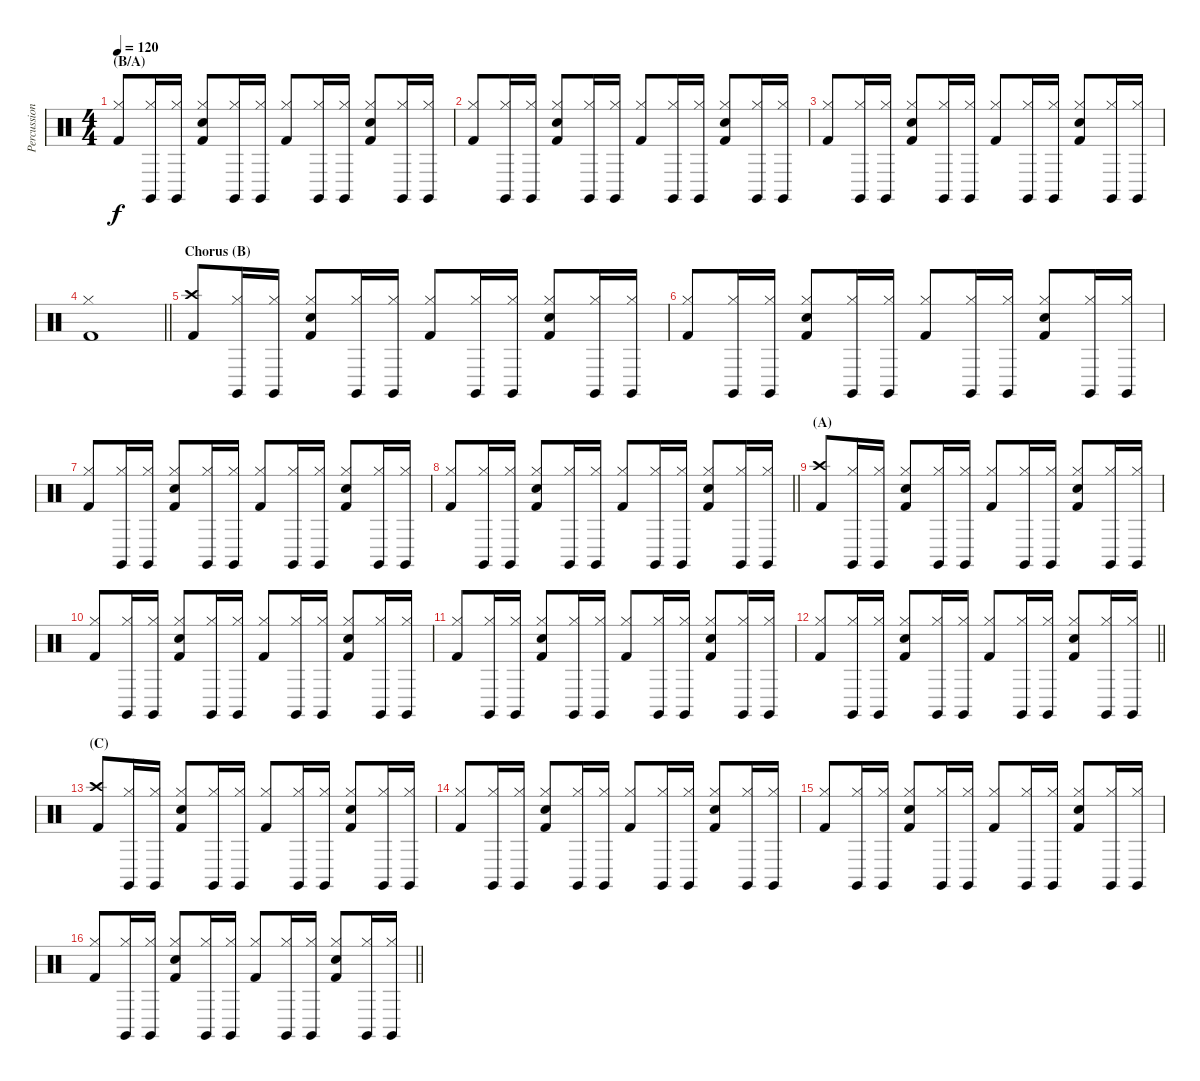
\track ("Percussion" "Percussion") {instrument percussion}
\staff {score}
\articulation defaults
\ts (4 4)
\section ("" "(B/A)")
\tempo 120
\clef neutral
\ks c
("Hi-Hat (closed)" "Kick (hit) 2").8{dy f} ("Hi-Hat (closed)" "Claves (hit)").16 ("Hi-Hat (closed)" "Claves (hit)").16 ("Hi-Hat (closed)" "Electric Snare (hit)" "Kick (hit) 2").8 ("Hi-Hat (closed)" "Claves (hit)").16 ("Hi-Hat (closed)" "Claves (hit)").16 ("Hi-Hat (closed)" "Kick (hit) 2").8 ("Hi-Hat (closed)" "Claves (hit)").16 ("Hi-Hat (closed)" "Claves (hit)").16 ("Hi-Hat (closed)" "Electric Snare (hit)" "Kick (hit) 2").8 ("Hi-Hat (closed)" "Claves (hit)").16 ("Hi-Hat (closed)" "Claves (hit)").16 |
("Hi-Hat (closed)" "Kick (hit) 2").8 ("Hi-Hat (closed)" "Claves (hit)").16 ("Hi-Hat (closed)" "Claves (hit)").16 ("Hi-Hat (closed)" "Electric Snare (hit)" "Kick (hit) 2").8 ("Hi-Hat (closed)" "Claves (hit)").16 ("Hi-Hat (closed)" "Claves (hit)").16 ("Hi-Hat (closed)" "Kick (hit) 2").8 ("Hi-Hat (closed)" "Claves (hit)").16 ("Hi-Hat (closed)" "Claves (hit)").16 ("Hi-Hat (closed)" "Electric Snare (hit)" "Kick (hit) 2").8 ("Hi-Hat (closed)" "Claves (hit)").16 ("Hi-Hat (closed)" "Claves (hit)").16 |
("Hi-Hat (closed)" "Kick (hit) 2").8 ("Hi-Hat (closed)" "Claves (hit)").16 ("Hi-Hat (closed)" "Claves (hit)").16 ("Hi-Hat (closed)" "Electric Snare (hit)" "Kick (hit) 2").8 ("Hi-Hat (closed)" "Claves (hit)").16 ("Hi-Hat (closed)" "Claves (hit)").16 ("Hi-Hat (closed)" "Kick (hit) 2").8 ("Hi-Hat (closed)" "Claves (hit)").16 ("Hi-Hat (closed)" "Claves (hit)").16 ("Hi-Hat (closed)" "Electric Snare (hit)" "Kick (hit) 2").8 ("Hi-Hat (closed)" "Claves (hit)").16 ("Hi-Hat (closed)" "Claves (hit)").16 |
\barLineRight lightlight
("Hi-Hat (closed)" "Kick (hit) 2").1 |
\section ("" "Chorus (B)")
("Crash high (hit)" "Kick (hit) 2").8 ("Hi-Hat (closed)" "Claves (hit)").16 ("Hi-Hat (closed)" "Claves (hit)").16 ("Hi-Hat (closed)" "Electric Snare (hit)" "Kick (hit) 2").8 ("Hi-Hat (closed)" "Claves (hit)").16 ("Hi-Hat (closed)" "Claves (hit)").16 ("Hi-Hat (closed)" "Kick (hit) 2").8 ("Hi-Hat (closed)" "Claves (hit)").16 ("Hi-Hat (closed)" "Claves (hit)").16 ("Hi-Hat (closed)" "Electric Snare (hit)" "Kick (hit) 2").8 ("Hi-Hat (closed)" "Claves (hit)").16 ("Hi-Hat (closed)" "Claves (hit)").16 |
("Hi-Hat (closed)" "Kick (hit) 2").8 ("Hi-Hat (closed)" "Claves (hit)").16 ("Hi-Hat (closed)" "Claves (hit)").16 ("Hi-Hat (closed)" "Electric Snare (hit)" "Kick (hit) 2").8 ("Hi-Hat (closed)" "Claves (hit)").16 ("Hi-Hat (closed)" "Claves (hit)").16 ("Hi-Hat (closed)" "Kick (hit) 2").8 ("Hi-Hat (closed)" "Claves (hit)").16 ("Hi-Hat (closed)" "Claves (hit)").16 ("Hi-Hat (closed)" "Electric Snare (hit)" "Kick (hit) 2").8 ("Hi-Hat (closed)" "Claves (hit)").16 ("Hi-Hat (closed)" "Claves (hit)").16 |
("Hi-Hat (closed)" "Kick (hit) 2").8 ("Hi-Hat (closed)" "Claves (hit)").16 ("Hi-Hat (closed)" "Claves (hit)").16 ("Hi-Hat (closed)" "Electric Snare (hit)" "Kick (hit) 2").8 ("Hi-Hat (closed)" "Claves (hit)").16 ("Hi-Hat (closed)" "Claves (hit)").16 ("Hi-Hat (closed)" "Kick (hit) 2").8 ("Hi-Hat (closed)" "Claves (hit)").16 ("Hi-Hat (closed)" "Claves (hit)").16 ("Hi-Hat (closed)" "Electric Snare (hit)" "Kick (hit) 2").8 ("Hi-Hat (closed)" "Claves (hit)").16 ("Hi-Hat (closed)" "Claves (hit)").16 |
\barLineRight lightlight
("Hi-Hat (closed)" "Kick (hit) 2").8 ("Hi-Hat (closed)" "Claves (hit)").16 ("Hi-Hat (closed)" "Claves (hit)").16 ("Hi-Hat (closed)" "Electric Snare (hit)" "Kick (hit) 2").8 ("Hi-Hat (closed)" "Claves (hit)").16 ("Hi-Hat (closed)" "Claves (hit)").16 ("Hi-Hat (closed)" "Kick (hit) 2").8 ("Hi-Hat (closed)" "Claves (hit)").16 ("Hi-Hat (closed)" "Claves (hit)").16 ("Hi-Hat (closed)" "Electric Snare (hit)" "Kick (hit) 2").8 ("Hi-Hat (closed)" "Claves (hit)").16 ("Hi-Hat (closed)" "Claves (hit)").16 |
\section ("" "(A)")
("Crash high (hit)" "Kick (hit) 2").8 ("Hi-Hat (closed)" "Claves (hit)").16 ("Hi-Hat (closed)" "Claves (hit)").16 ("Hi-Hat (closed)" "Electric Snare (hit)" "Kick (hit) 2").8 ("Hi-Hat (closed)" "Claves (hit)").16 ("Hi-Hat (closed)" "Claves (hit)").16 ("Hi-Hat (closed)" "Kick (hit) 2").8 ("Hi-Hat (closed)" "Claves (hit)").16 ("Hi-Hat (closed)" "Claves (hit)").16 ("Hi-Hat (closed)" "Electric Snare (hit)" "Kick (hit) 2").8 ("Hi-Hat (closed)" "Claves (hit)").16 ("Hi-Hat (closed)" "Claves (hit)").16 |
("Hi-Hat (closed)" "Kick (hit) 2").8 ("Hi-Hat (closed)" "Claves (hit)").16 ("Hi-Hat (closed)" "Claves (hit)").16 ("Hi-Hat (closed)" "Electric Snare (hit)" "Kick (hit) 2").8 ("Hi-Hat (closed)" "Claves (hit)").16 ("Hi-Hat (closed)" "Claves (hit)").16 ("Hi-Hat (closed)" "Kick (hit) 2").8 ("Hi-Hat (closed)" "Claves (hit)").16 ("Hi-Hat (closed)" "Claves (hit)").16 ("Hi-Hat (closed)" "Electric Snare (hit)" "Kick (hit) 2").8 ("Hi-Hat (closed)" "Claves (hit)").16 ("Hi-Hat (closed)" "Claves (hit)").16 |
("Hi-Hat (closed)" "Kick (hit) 2").8 ("Hi-Hat (closed)" "Claves (hit)").16 ("Hi-Hat (closed)" "Claves (hit)").16 ("Hi-Hat (closed)" "Electric Snare (hit)" "Kick (hit) 2").8 ("Hi-Hat (closed)" "Claves (hit)").16 ("Hi-Hat (closed)" "Claves (hit)").16 ("Hi-Hat (closed)" "Kick (hit) 2").8 ("Hi-Hat (closed)" "Claves (hit)").16 ("Hi-Hat (closed)" "Claves (hit)").16 ("Hi-Hat (closed)" "Electric Snare (hit)" "Kick (hit) 2").8 ("Hi-Hat (closed)" "Claves (hit)").16 ("Hi-Hat (closed)" "Claves (hit)").16 |
\barLineRight lightlight
("Hi-Hat (closed)" "Kick (hit) 2").8 ("Hi-Hat (closed)" "Claves (hit)").16 ("Hi-Hat (closed)" "Claves (hit)").16 ("Hi-Hat (closed)" "Electric Snare (hit)" "Kick (hit) 2").8 ("Hi-Hat (closed)" "Claves (hit)").16 ("Hi-Hat (closed)" "Claves (hit)").16 ("Hi-Hat (closed)" "Kick (hit) 2").8 ("Hi-Hat (closed)" "Claves (hit)").16 ("Hi-Hat (closed)" "Claves (hit)").16 ("Hi-Hat (closed)" "Electric Snare (hit)" "Kick (hit) 2").8 ("Hi-Hat (closed)" "Claves (hit)").16 ("Hi-Hat (closed)" "Claves (hit)").16 |
\section ("" "(C)")
("Crash high (hit)" "Kick (hit) 2").8 ("Hi-Hat (closed)" "Claves (hit)").16 ("Hi-Hat (closed)" "Claves (hit)").16 ("Hi-Hat (closed)" "Electric Snare (hit)" "Kick (hit) 2").8 ("Hi-Hat (closed)" "Claves (hit)").16 ("Hi-Hat (closed)" "Claves (hit)").16 ("Hi-Hat (closed)" "Kick (hit) 2").8 ("Hi-Hat (closed)" "Claves (hit)").16 ("Hi-Hat (closed)" "Claves (hit)").16 ("Hi-Hat (closed)" "Electric Snare (hit)" "Kick (hit) 2").8 ("Hi-Hat (closed)" "Claves (hit)").16 ("Hi-Hat (closed)" "Claves (hit)").16 |
("Hi-Hat (closed)" "Kick (hit) 2").8 ("Hi-Hat (closed)" "Claves (hit)").16 ("Hi-Hat (closed)" "Claves (hit)").16 ("Hi-Hat (closed)" "Electric Snare (hit)" "Kick (hit) 2").8 ("Hi-Hat (closed)" "Claves (hit)").16 ("Hi-Hat (closed)" "Claves (hit)").16 ("Hi-Hat (closed)" "Kick (hit) 2").8 ("Hi-Hat (closed)" "Claves (hit)").16 ("Hi-Hat (closed)" "Claves (hit)").16 ("Hi-Hat (closed)" "Electric Snare (hit)" "Kick (hit) 2").8 ("Hi-Hat (closed)" "Claves (hit)").16 ("Hi-Hat (closed)" "Claves (hit)").16 |
("Hi-Hat (closed)" "Kick (hit) 2").8 ("Hi-Hat (closed)" "Claves (hit)").16 ("Hi-Hat (closed)" "Claves (hit)").16 ("Hi-Hat (closed)" "Electric Snare (hit)" "Kick (hit) 2").8 ("Hi-Hat (closed)" "Claves (hit)").16 ("Hi-Hat (closed)" "Claves (hit)").16 ("Hi-Hat (closed)" "Kick (hit) 2").8 ("Hi-Hat (closed)" "Claves (hit)").16 ("Hi-Hat (closed)" "Claves (hit)").16 ("Hi-Hat (closed)" "Electric Snare (hit)" "Kick (hit) 2").8 ("Hi-Hat (closed)" "Claves (hit)").16 ("Hi-Hat (closed)" "Claves (hit)").16 |
\barLineRight lightlight
("Hi-Hat (closed)" "Kick (hit) 2").8 ("Hi-Hat (closed)" "Claves (hit)").16 ("Hi-Hat (closed)" "Claves (hit)").16 ("Hi-Hat (closed)" "Electric Snare (hit)" "Kick (hit) 2").8 ("Hi-Hat (closed)" "Claves (hit)").16 ("Hi-Hat (closed)" "Claves (hit)").16 ("Hi-Hat (closed)" "Kick (hit) 2").8 ("Hi-Hat (closed)" "Claves (hit)").16 ("Hi-Hat (closed)" "Claves (hit)").16 ("Hi-Hat (closed)" "Electric Snare (hit)" "Kick (hit) 2").8 ("Hi-Hat (closed)" "Claves (hit)").16 ("Hi-Hat (closed)" "Claves (hit)").16
